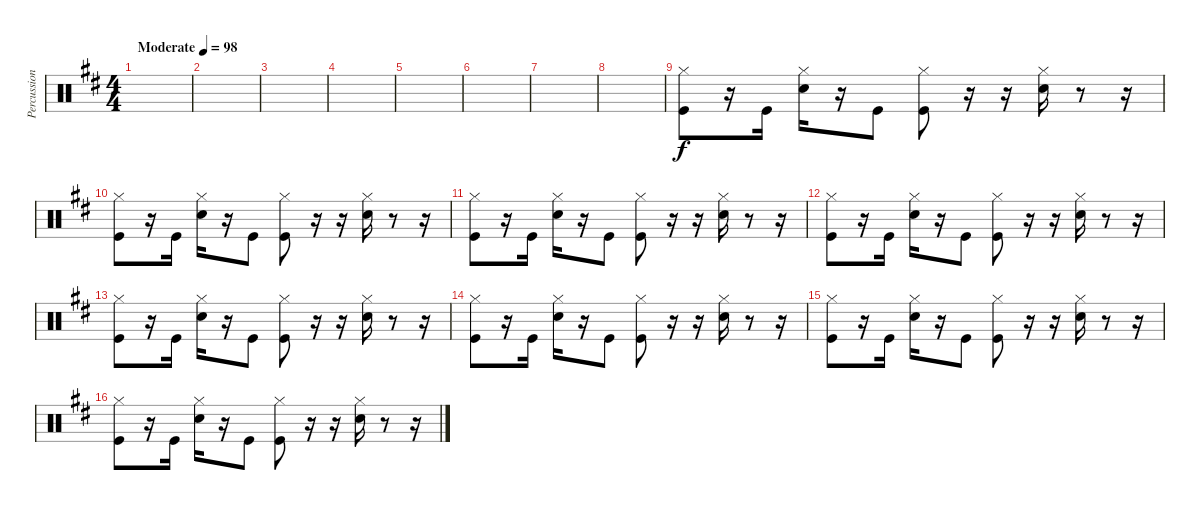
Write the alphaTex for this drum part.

\track ("Percussion" "Percussion") {instrument percussion}
\staff {score}
\articulation defaults
\ts (4 4)
\tempo (98 "Moderate")
\clef neutral
\ks bminor
|
|
|
|
|
|
|
|
("Hi-Hat (closed)" "Kick (hit)").8 r.16 "Kick (hit)".16 ("Hi-Hat (closed)" "Snare (hit) 2").16 r.16 "Kick (hit)".8 ("Hi-Hat (closed)" "Kick (hit)").8 r.16 r.16 ("Hi-Hat (closed)" "Snare (hit) 2").16 r.8 r.16 |
("Hi-Hat (closed)" "Kick (hit)").8 r.16 "Kick (hit)".16 ("Hi-Hat (closed)" "Snare (hit) 2").16 r.16 "Kick (hit)".8 ("Hi-Hat (closed)" "Kick (hit)").8 r.16 r.16 ("Hi-Hat (closed)" "Snare (hit) 2").16 r.8 r.16 |
("Hi-Hat (closed)" "Kick (hit)").8 r.16 "Kick (hit)".16 ("Hi-Hat (closed)" "Snare (hit) 2").16 r.16 "Kick (hit)".8 ("Hi-Hat (closed)" "Kick (hit)").8 r.16 r.16 ("Hi-Hat (closed)" "Snare (hit) 2").16 r.8 r.16 |
("Hi-Hat (closed)" "Kick (hit)").8 r.16 "Kick (hit)".16 ("Hi-Hat (closed)" "Snare (hit) 2").16 r.16 "Kick (hit)".8 ("Hi-Hat (closed)" "Kick (hit)").8 r.16 r.16 ("Hi-Hat (closed)" "Snare (hit) 2").16 r.8 r.16 |
("Hi-Hat (closed)" "Kick (hit)").8 r.16 "Kick (hit)".16 ("Hi-Hat (closed)" "Snare (hit) 2").16 r.16 "Kick (hit)".8 ("Hi-Hat (closed)" "Kick (hit)").8 r.16 r.16 ("Hi-Hat (closed)" "Snare (hit) 2").16 r.8 r.16 |
("Hi-Hat (closed)" "Kick (hit)").8 r.16 "Kick (hit)".16 ("Hi-Hat (closed)" "Snare (hit) 2").16 r.16 "Kick (hit)".8 ("Hi-Hat (closed)" "Kick (hit)").8 r.16 r.16 ("Hi-Hat (closed)" "Snare (hit) 2").16 r.8 r.16 |
("Hi-Hat (closed)" "Kick (hit)").8 r.16 "Kick (hit)".16 ("Hi-Hat (closed)" "Snare (hit) 2").16 r.16 "Kick (hit)".8 ("Hi-Hat (closed)" "Kick (hit)").8 r.16 r.16 ("Hi-Hat (closed)" "Snare (hit) 2").16 r.8 r.16 |
("Hi-Hat (closed)" "Kick (hit)").8 r.16 "Kick (hit)".16 ("Hi-Hat (closed)" "Snare (hit) 2").16 r.16 "Kick (hit)".8 ("Hi-Hat (closed)" "Kick (hit)").8 r.16 r.16 ("Hi-Hat (closed)" "Snare (hit) 2").16 r.8 r.16
